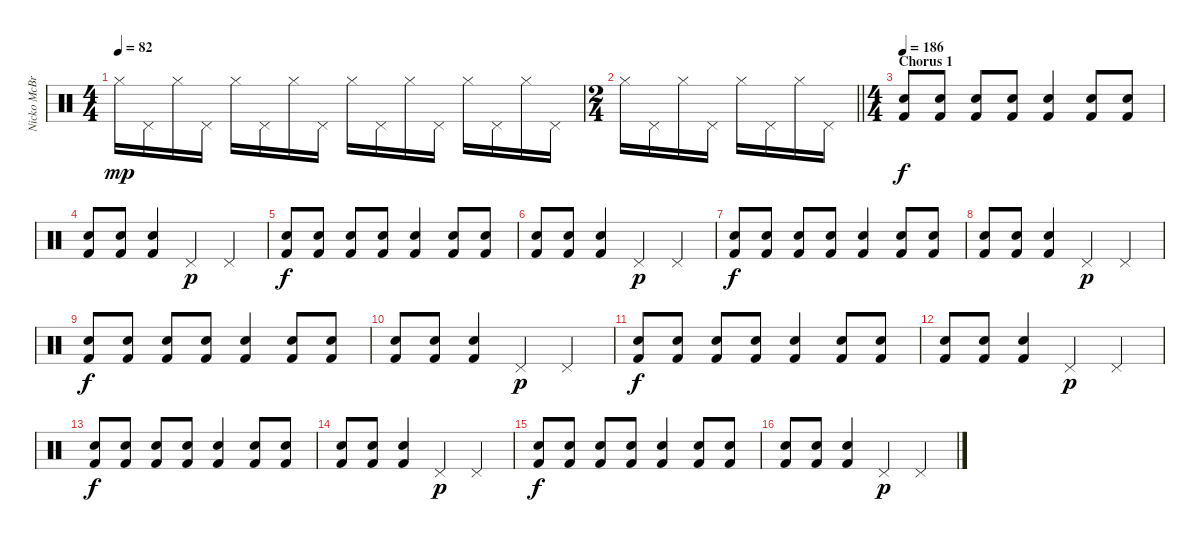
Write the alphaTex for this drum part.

\track ("Nicko McBrain" "Nicko McBr") {instrument percussion}
\staff {score}
\articulation defaults
\ts (4 4)
\tempo 82
\clef neutral
\ks c "Hi-Hat (closed)".16{dy mp} "Pedal Hi-Hat (hit)".16 "Hi-Hat (closed)".16 "Pedal Hi-Hat (hit)".16 "Hi-Hat (closed)".16 "Pedal Hi-Hat (hit)".16 "Hi-Hat (closed)".16 "Pedal Hi-Hat (hit)".16 "Hi-Hat (closed)".16 "Pedal Hi-Hat (hit)".16 "Hi-Hat (closed)".16 "Pedal Hi-Hat (hit)".16 "Hi-Hat (closed)".16 "Pedal Hi-Hat (hit)".16 "Hi-Hat (closed)".16 "Pedal Hi-Hat (hit)".16
|
\ts (2 4)
\barLineRight lightlight "Hi-Hat (closed)".16 "Pedal Hi-Hat (hit)".16 "Hi-Hat (closed)".16 "Pedal Hi-Hat (hit)".16 "Hi-Hat (closed)".16 "Pedal Hi-Hat (hit)".16 "Hi-Hat (closed)".16 "Pedal Hi-Hat (hit)".16
|
\ts (4 4)
\section ("" "Chorus 1")
\tempo 186
("Electric Snare (hit)" "Kick (hit) 2").8{dy f} ("Electric Snare (hit)" "Kick (hit) 2").8 ("Electric Snare (hit)" "Kick (hit) 2").8 ("Electric Snare (hit)" "Kick (hit) 2").8 ("Electric Snare (hit)" "Kick (hit) 2").4 ("Electric Snare (hit)" "Kick (hit) 2").8 ("Electric Snare (hit)" "Kick (hit) 2").8 |
("Electric Snare (hit)" "Kick (hit) 2").8 ("Electric Snare (hit)" "Kick (hit) 2").8 ("Electric Snare (hit)" "Kick (hit) 2").4 "Pedal Hi-Hat (hit)".4{dy p} "Pedal Hi-Hat (hit)".4 |
("Electric Snare (hit)" "Kick (hit) 2").8{dy f} ("Electric Snare (hit)" "Kick (hit) 2").8 ("Electric Snare (hit)" "Kick (hit) 2").8 ("Electric Snare (hit)" "Kick (hit) 2").8 ("Electric Snare (hit)" "Kick (hit) 2").4 ("Electric Snare (hit)" "Kick (hit) 2").8 ("Electric Snare (hit)" "Kick (hit) 2").8 |
("Electric Snare (hit)" "Kick (hit) 2").8 ("Electric Snare (hit)" "Kick (hit) 2").8 ("Electric Snare (hit)" "Kick (hit) 2").4 "Pedal Hi-Hat (hit)".4{dy p} "Pedal Hi-Hat (hit)".4 |
("Electric Snare (hit)" "Kick (hit) 2").8{dy f} ("Electric Snare (hit)" "Kick (hit) 2").8 ("Electric Snare (hit)" "Kick (hit) 2").8 ("Electric Snare (hit)" "Kick (hit) 2").8 ("Electric Snare (hit)" "Kick (hit) 2").4 ("Electric Snare (hit)" "Kick (hit) 2").8 ("Electric Snare (hit)" "Kick (hit) 2").8 |
("Electric Snare (hit)" "Kick (hit) 2").8 ("Electric Snare (hit)" "Kick (hit) 2").8 ("Electric Snare (hit)" "Kick (hit) 2").4 "Pedal Hi-Hat (hit)".4{dy p} "Pedal Hi-Hat (hit)".4 |
("Electric Snare (hit)" "Kick (hit) 2").8{dy f} ("Electric Snare (hit)" "Kick (hit) 2").8 ("Electric Snare (hit)" "Kick (hit) 2").8 ("Electric Snare (hit)" "Kick (hit) 2").8 ("Electric Snare (hit)" "Kick (hit) 2").4 ("Electric Snare (hit)" "Kick (hit) 2").8 ("Electric Snare (hit)" "Kick (hit) 2").8 |
("Electric Snare (hit)" "Kick (hit) 2").8 ("Electric Snare (hit)" "Kick (hit) 2").8 ("Electric Snare (hit)" "Kick (hit) 2").4 "Pedal Hi-Hat (hit)".4{dy p} "Pedal Hi-Hat (hit)".4 |
("Electric Snare (hit)" "Kick (hit) 2").8{dy f} ("Electric Snare (hit)" "Kick (hit) 2").8 ("Electric Snare (hit)" "Kick (hit) 2").8 ("Electric Snare (hit)" "Kick (hit) 2").8 ("Electric Snare (hit)" "Kick (hit) 2").4 ("Electric Snare (hit)" "Kick (hit) 2").8 ("Electric Snare (hit)" "Kick (hit) 2").8 |
("Electric Snare (hit)" "Kick (hit) 2").8 ("Electric Snare (hit)" "Kick (hit) 2").8 ("Electric Snare (hit)" "Kick (hit) 2").4 "Pedal Hi-Hat (hit)".4{dy p} "Pedal Hi-Hat (hit)".4 |
("Electric Snare (hit)" "Kick (hit) 2").8{dy f} ("Electric Snare (hit)" "Kick (hit) 2").8 ("Electric Snare (hit)" "Kick (hit) 2").8 ("Electric Snare (hit)" "Kick (hit) 2").8 ("Electric Snare (hit)" "Kick (hit) 2").4 ("Electric Snare (hit)" "Kick (hit) 2").8 ("Electric Snare (hit)" "Kick (hit) 2").8 |
("Electric Snare (hit)" "Kick (hit) 2").8 ("Electric Snare (hit)" "Kick (hit) 2").8 ("Electric Snare (hit)" "Kick (hit) 2").4 "Pedal Hi-Hat (hit)".4{dy p} "Pedal Hi-Hat (hit)".4 |
("Electric Snare (hit)" "Kick (hit) 2").8{dy f} ("Electric Snare (hit)" "Kick (hit) 2").8 ("Electric Snare (hit)" "Kick (hit) 2").8 ("Electric Snare (hit)" "Kick (hit) 2").8 ("Electric Snare (hit)" "Kick (hit) 2").4 ("Electric Snare (hit)" "Kick (hit) 2").8 ("Electric Snare (hit)" "Kick (hit) 2").8 |
("Electric Snare (hit)" "Kick (hit) 2").8 ("Electric Snare (hit)" "Kick (hit) 2").8 ("Electric Snare (hit)" "Kick (hit) 2").4 "Pedal Hi-Hat (hit)".4{dy p} "Pedal Hi-Hat (hit)".4
